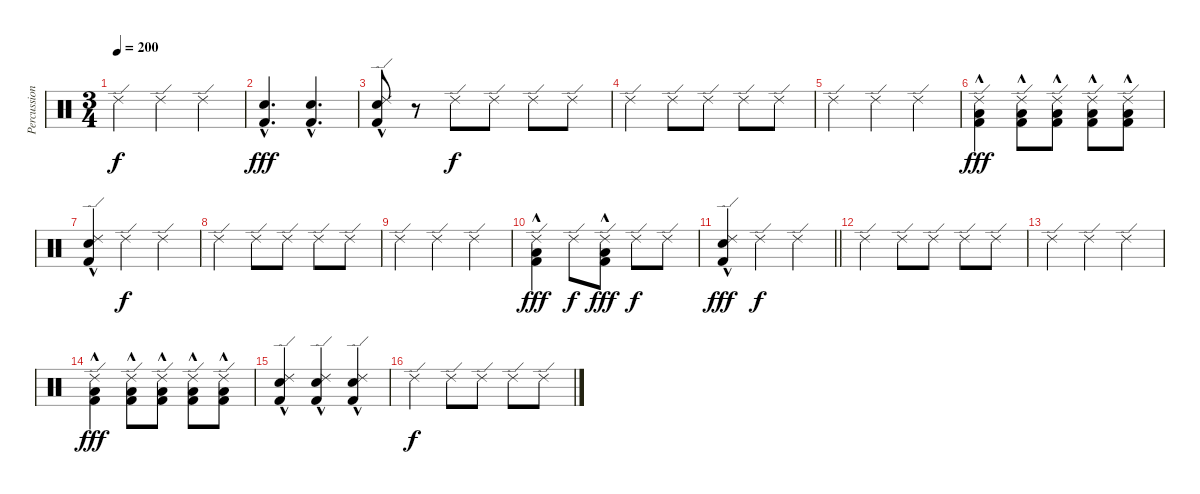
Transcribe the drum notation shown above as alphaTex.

\track ("Percussions" "Percussion") {instrument percussion}
\staff {score}
\articulation defaults
\ts (3 4)
\tempo 200
\clef neutral
\ks c "Ride (edge) 2".4{dy f} "Ride (edge) 2".4 "Ride (edge) 2".4
|
("Electric Snare (hit)"{hac} "Kick (hit) 2"{hac}).4{d dy fff} ("Electric Snare (hit)"{hac} "Kick (hit) 2"{hac}).4{d} |
("Ride (edge) 2" "Electric Snare (hit)"{hac} "Kick (hit) 2"{hac}).8 r.8 "Ride (edge) 2".8{dy f} "Ride (edge) 2".8 "Ride (edge) 2".8 "Ride (edge) 2".8 |
"Ride (edge) 2".4 "Ride (edge) 2".8 "Ride (edge) 2".8 "Ride (edge) 2".8 "Ride (edge) 2".8 |
"Ride (edge) 2".4 "Ride (edge) 2".4 "Ride (edge) 2".4 |
("Ride (edge) 2" "Low Tom (hit)"{hac} "Kick (hit) 2"{hac}).4{dy fff} ("Ride (edge) 2" "Low Tom (hit)"{hac} "Kick (hit) 2"{hac}).8 ("Ride (edge) 2" "Low Tom (hit)"{hac} "Kick (hit) 2"{hac}).8 ("Ride (edge) 2" "Low Tom (hit)"{hac} "Kick (hit) 2"{hac}).8 ("Ride (edge) 2" "Low Tom (hit)"{hac} "Kick (hit) 2"{hac}).8 |
("Ride (edge) 2" "Electric Snare (hit)"{hac} "Kick (hit) 2"{hac}).4 "Ride (edge) 2".4{dy f} "Ride (edge) 2".4 |
"Ride (edge) 2".4 "Ride (edge) 2".8 "Ride (edge) 2".8 "Ride (edge) 2".8 "Ride (edge) 2".8 |
"Ride (edge) 2".4 "Ride (edge) 2".4 "Ride (edge) 2".4 |
("Ride (edge) 2" "Low Tom (hit)"{hac} "Kick (hit) 2"{hac}).4{dy fff} "Ride (edge) 2".8{dy f} ("Ride (edge) 2" "Low Tom (hit)"{hac} "Kick (hit) 2"{hac}).8{dy fff} "Ride (edge) 2".8{dy f} "Ride (edge) 2".8 |
\barLineRight lightlight
("Ride (edge) 2" "Electric Snare (hit)"{hac} "Kick (hit) 2"{hac}).4{dy fff} "Ride (edge) 2".4{dy f} "Ride (edge) 2".4 |
"Ride (edge) 2".4 "Ride (edge) 2".8 "Ride (edge) 2".8 "Ride (edge) 2".8 "Ride (edge) 2".8 |
"Ride (edge) 2".4 "Ride (edge) 2".4 "Ride (edge) 2".4 |
("Ride (edge) 2" "Low Tom (hit)"{hac} "Kick (hit) 2"{hac}).4{dy fff} ("Ride (edge) 2" "Low Tom (hit)"{hac} "Kick (hit) 2"{hac}).8 ("Ride (edge) 2" "Low Tom (hit)"{hac} "Kick (hit) 2"{hac}).8 ("Ride (edge) 2" "Low Tom (hit)"{hac} "Kick (hit) 2"{hac}).8 ("Ride (edge) 2" "Low Tom (hit)"{hac} "Kick (hit) 2"{hac}).8 |
("Ride (edge) 2" "Electric Snare (hit)"{hac} "Kick (hit) 2"{hac}).4 ("Ride (edge) 2" "Electric Snare (hit)"{hac} "Kick (hit) 2"{hac}).4 ("Ride (edge) 2" "Electric Snare (hit)"{hac} "Kick (hit) 2"{hac}).4 |
"Ride (edge) 2".4{dy f} "Ride (edge) 2".8 "Ride (edge) 2".8 "Ride (edge) 2".8 "Ride (edge) 2".8
